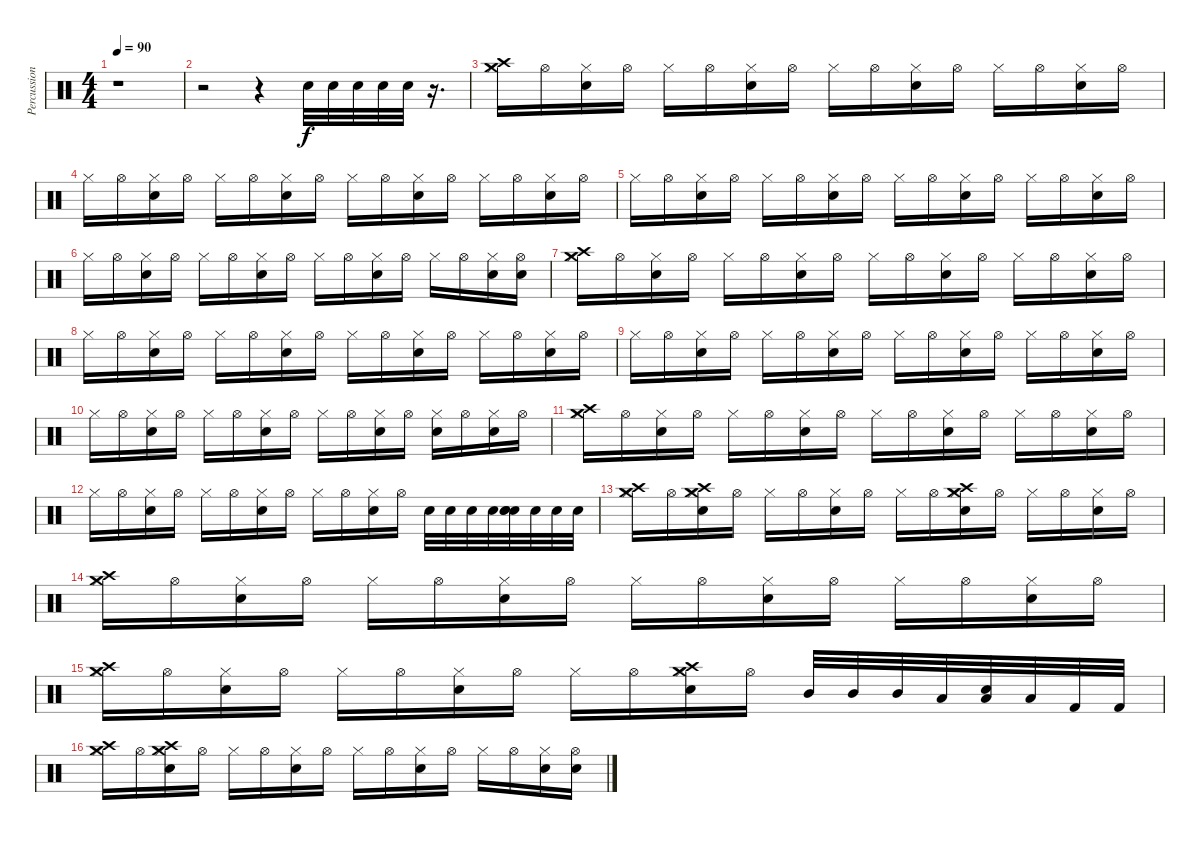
\track ("Percussions" "Percussion") {instrument percussion}
\staff {score}
\articulation defaults
\ts (4 4)
\tempo 90
\clef neutral
\ks c
r.1{dy f} |
r.2 r.4 "Snare (hit) 2".32 "Snare (hit) 2".32 "Snare (hit) 2".32 "Snare (hit) 2".32 "Snare (hit) 2".32 r.16{d} |
("Crash high (hit)" "Hi-Hat (closed)" "Crash medium (hit)").16 "Hi-Hat (open)".16 ("Snare (hit) 2" "Hi-Hat (closed)").16 "Hi-Hat (open)".16 "Hi-Hat (closed)".16 "Hi-Hat (open)".16 ("Snare (hit) 2" "Hi-Hat (closed)").16 "Hi-Hat (open)".16 "Hi-Hat (closed)".16 "Hi-Hat (open)".16 ("Snare (hit) 2" "Hi-Hat (closed)").16 "Hi-Hat (open)".16 "Hi-Hat (closed)".16 "Hi-Hat (open)".16 ("Snare (hit) 2" "Hi-Hat (closed)").16 "Hi-Hat (open)".16 |
"Hi-Hat (closed)".16 "Hi-Hat (open)".16 ("Snare (hit) 2" "Hi-Hat (closed)").16 "Hi-Hat (open)".16 "Hi-Hat (closed)".16 "Hi-Hat (open)".16 ("Snare (hit) 2" "Hi-Hat (closed)").16 "Hi-Hat (open)".16 "Hi-Hat (closed)".16 "Hi-Hat (open)".16 ("Snare (hit) 2" "Hi-Hat (closed)").16 "Hi-Hat (open)".16 "Hi-Hat (closed)".16 "Hi-Hat (open)".16 ("Snare (hit) 2" "Hi-Hat (closed)").16 "Hi-Hat (open)".16 |
"Hi-Hat (closed)".16 "Hi-Hat (open)".16 ("Snare (hit) 2" "Hi-Hat (closed)").16 "Hi-Hat (open)".16 "Hi-Hat (closed)".16 "Hi-Hat (open)".16 ("Snare (hit) 2" "Hi-Hat (closed)").16 "Hi-Hat (open)".16 "Hi-Hat (closed)".16 "Hi-Hat (open)".16 ("Snare (hit) 2" "Hi-Hat (closed)").16 "Hi-Hat (open)".16 "Hi-Hat (closed)".16 "Hi-Hat (open)".16 ("Snare (hit) 2" "Hi-Hat (closed)").16 "Hi-Hat (open)".16 |
"Hi-Hat (closed)".16 "Hi-Hat (open)".16 ("Snare (hit) 2" "Hi-Hat (closed)").16 "Hi-Hat (open)".16 "Hi-Hat (closed)".16 "Hi-Hat (open)".16 ("Snare (hit) 2" "Hi-Hat (closed)").16 "Hi-Hat (open)".16 "Hi-Hat (closed)".16 "Hi-Hat (open)".16 ("Snare (hit) 2" "Hi-Hat (closed)").16 "Hi-Hat (open)".16 "Hi-Hat (closed)".16 "Hi-Hat (open)".16 ("Snare (hit) 2" "Hi-Hat (closed)").16 ("Snare (hit) 2" "Hi-Hat (open)").16 |
("Crash high (hit)" "Hi-Hat (closed)" "Crash medium (hit)").16 "Hi-Hat (open)".16 ("Snare (hit) 2" "Hi-Hat (closed)").16 "Hi-Hat (open)".16 "Hi-Hat (closed)".16 "Hi-Hat (open)".16 ("Snare (hit) 2" "Hi-Hat (closed)").16 "Hi-Hat (open)".16 "Hi-Hat (closed)".16 "Hi-Hat (open)".16 ("Snare (hit) 2" "Hi-Hat (closed)").16 "Hi-Hat (open)".16 "Hi-Hat (closed)".16 "Hi-Hat (open)".16 ("Snare (hit) 2" "Hi-Hat (closed)").16 "Hi-Hat (open)".16 |
"Hi-Hat (closed)".16 "Hi-Hat (open)".16 ("Snare (hit) 2" "Hi-Hat (closed)").16 "Hi-Hat (open)".16 "Hi-Hat (closed)".16 "Hi-Hat (open)".16 ("Snare (hit) 2" "Hi-Hat (closed)").16 "Hi-Hat (open)".16 "Hi-Hat (closed)".16 "Hi-Hat (open)".16 ("Snare (hit) 2" "Hi-Hat (closed)").16 "Hi-Hat (open)".16 "Hi-Hat (closed)".16 "Hi-Hat (open)".16 ("Snare (hit) 2" "Hi-Hat (closed)").16 "Hi-Hat (open)".16 |
"Hi-Hat (closed)".16 "Hi-Hat (open)".16 ("Snare (hit) 2" "Hi-Hat (closed)").16 "Hi-Hat (open)".16 "Hi-Hat (closed)".16 "Hi-Hat (open)".16 ("Snare (hit) 2" "Hi-Hat (closed)").16 "Hi-Hat (open)".16 "Hi-Hat (closed)".16 "Hi-Hat (open)".16 ("Snare (hit) 2" "Hi-Hat (closed)").16 "Hi-Hat (open)".16 "Hi-Hat (closed)".16 "Hi-Hat (open)".16 ("Snare (hit) 2" "Hi-Hat (closed)").16 "Hi-Hat (open)".16 |
"Hi-Hat (closed)".16 "Hi-Hat (open)".16 ("Snare (hit) 2" "Hi-Hat (closed)").16 "Hi-Hat (open)".16 "Hi-Hat (closed)".16 "Hi-Hat (open)".16 ("Snare (hit) 2" "Hi-Hat (closed)").16 "Hi-Hat (open)".16 "Hi-Hat (closed)".16 "Hi-Hat (open)".16 ("Snare (hit) 2" "Hi-Hat (closed)").16 "Hi-Hat (open)".16 ("Snare (hit) 2" "Hi-Hat (closed)").16 "Hi-Hat (open)".16 ("Snare (hit) 2" "Hi-Hat (closed)").16 "Hi-Hat (open)".16 |
("Crash high (hit)" "Hi-Hat (closed)" "Crash medium (hit)").16 "Hi-Hat (open)".16 ("Snare (hit) 2" "Hi-Hat (closed)").16 "Hi-Hat (open)".16 "Hi-Hat (closed)".16 "Hi-Hat (open)".16 ("Snare (hit) 2" "Hi-Hat (closed)").16 "Hi-Hat (open)".16 "Hi-Hat (closed)".16 "Hi-Hat (open)".16 ("Snare (hit) 2" "Hi-Hat (closed)").16 "Hi-Hat (open)".16 "Hi-Hat (closed)".16 "Hi-Hat (open)".16 ("Snare (hit) 2" "Hi-Hat (closed)").16 "Hi-Hat (open)".16 |
"Hi-Hat (closed)".16 "Hi-Hat (open)".16 ("Snare (hit) 2" "Hi-Hat (closed)").16 "Hi-Hat (open)".16 "Hi-Hat (closed)".16 "Hi-Hat (open)".16 ("Snare (hit) 2" "Hi-Hat (closed)").16 "Hi-Hat (open)".16 "Hi-Hat (closed)".16 "Hi-Hat (open)".16 ("Snare (hit) 2" "Hi-Hat (closed)").16 "Hi-Hat (open)".16 "Snare (hit) 2".32 "Snare (hit) 2".32 "Snare (hit) 2".32 "Snare (hit) 2".32 ("Snare (hit) 2" "Snare (hit) 2" "Snare (hit) 2").32 "Snare (hit) 2".32 "Snare (hit) 2".32 "Snare (hit) 2".32 |
("Crash high (hit)" "Hi-Hat (closed)" "Crash medium (hit)").16 "Hi-Hat (open)".16 ("Crash high (hit)" "Hi-Hat (closed)" "Snare (hit) 2" "Crash medium (hit)").16 "Hi-Hat (open)".16 "Hi-Hat (closed)".16 "Hi-Hat (open)".16 ("Snare (hit) 2" "Hi-Hat (closed)").16 "Hi-Hat (open)".16 "Hi-Hat (closed)".16 "Hi-Hat (open)".16 ("Snare (hit) 2" "Hi-Hat (closed)" "Crash medium (hit)" "Crash high (hit)").16 "Hi-Hat (open)".16 "Hi-Hat (closed)".16 "Hi-Hat (open)".16 ("Snare (hit) 2" "Hi-Hat (closed)").16 "Hi-Hat (open)".16 |
("Crash high (hit)" "Hi-Hat (closed)" "Crash medium (hit)").16 "Hi-Hat (open)".16 ("Snare (hit) 2" "Hi-Hat (closed)").16 "Hi-Hat (open)".16 "Hi-Hat (closed)".16 "Hi-Hat (open)".16 ("Snare (hit) 2" "Hi-Hat (closed)").16 "Hi-Hat (open)".16 "Hi-Hat (closed)".16 "Hi-Hat (open)".16 ("Snare (hit) 2" "Hi-Hat (closed)").16 "Hi-Hat (open)".16 "Hi-Hat (closed)".16 "Hi-Hat (open)".16 ("Snare (hit) 2" "Hi-Hat (closed)").16 "Hi-Hat (open)".16 |
("Crash high (hit)" "Hi-Hat (closed)" "Crash medium (hit)").16 "Hi-Hat (open)".16 ("Snare (hit) 2" "Hi-Hat (closed)").16 "Hi-Hat (open)".16 "Hi-Hat (closed)".16 "Hi-Hat (open)".16 ("Snare (hit) 2" "Hi-Hat (closed)").16 "Hi-Hat (open)".16 "Hi-Hat (closed)".16 "Hi-Hat (open)".16 ("Snare (hit) 2" "Hi-Hat (closed)" "Crash medium (hit)" "Crash high (hit)").16 "Hi-Hat (open)".16 "Mid Tom (hit)".32 "Mid Tom (hit)".32 "Mid Tom (hit)".32 "Low Tom (hit)".32 ("Snare (hit) 2" "Low Tom (hit)").32 "Low Tom (hit)".32 "Kick (hit) 2".32 "Kick (hit) 2".32 |
("Crash high (hit)" "Hi-Hat (closed)" "Crash medium (hit)").16 "Hi-Hat (open)".16 ("Snare (hit) 2" "Hi-Hat (closed)" "Crash high (hit)" "Crash medium (hit)").16 "Hi-Hat (open)".16 "Hi-Hat (closed)".16 "Hi-Hat (open)".16 ("Snare (hit) 2" "Hi-Hat (closed)").16 "Hi-Hat (open)".16 "Hi-Hat (closed)".16 "Hi-Hat (open)".16 ("Snare (hit) 2" "Hi-Hat (closed)").16 "Hi-Hat (open)".16 "Hi-Hat (closed)".16 "Hi-Hat (open)".16 ("Snare (hit) 2" "Hi-Hat (closed)").16 ("Snare (hit) 2" "Hi-Hat (open)").16
